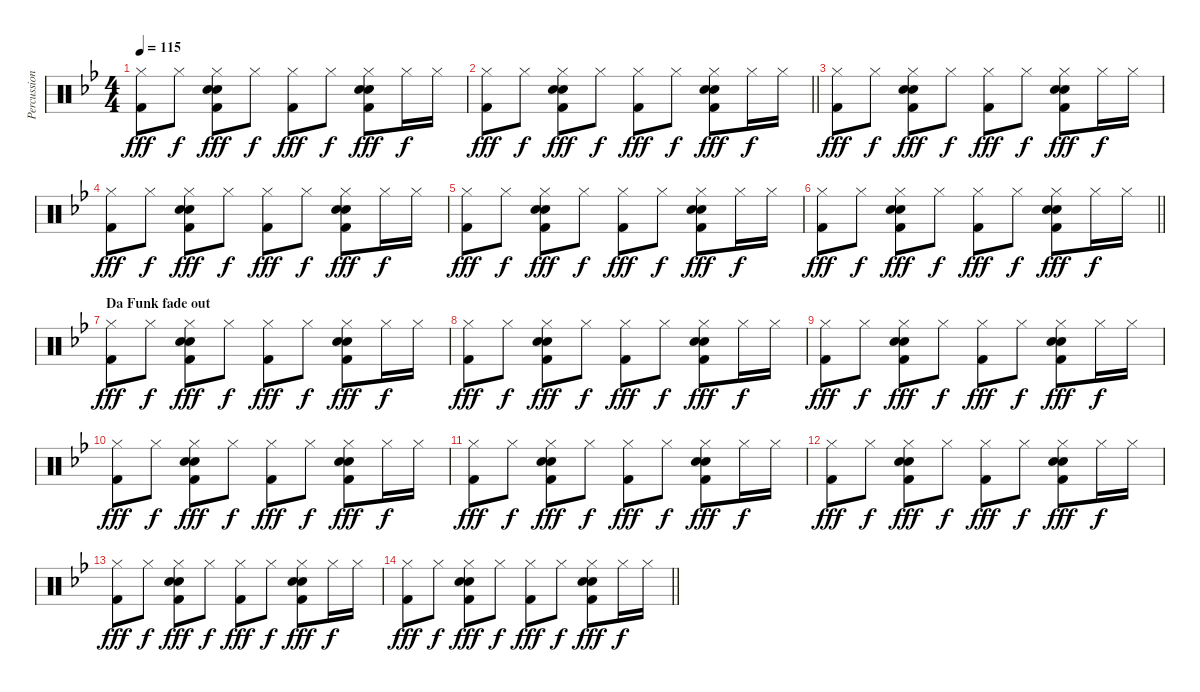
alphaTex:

\track ("Percussions" "Percussion") {instrument percussion}
\staff {score}
\articulation defaults
\ts (4 4)
\tempo 115
\clef neutral
\ks gminor
("Hi-Hat (closed)" "Kick (hit) 2").8{dy fff} "Hi-Hat (closed)".8{dy f} ("Hi-Hat (closed)" "Hand Clap (hit)" "Electric Snare (hit)" "Kick (hit) 2").8{dy fff} "Hi-Hat (closed)".8{dy f} ("Hi-Hat (closed)" "Kick (hit) 2").8{dy fff} "Hi-Hat (closed)".8{dy f} ("Hi-Hat (closed)" "Hand Clap (hit)" "Electric Snare (hit)" "Kick (hit) 2").8{dy fff} "Hi-Hat (closed)".16{dy f} "Hi-Hat (closed)".16 |
\barLineRight lightlight
("Hi-Hat (closed)" "Kick (hit) 2").8{dy fff} "Hi-Hat (closed)".8{dy f} ("Hi-Hat (closed)" "Hand Clap (hit)" "Electric Snare (hit)" "Kick (hit) 2").8{dy fff} "Hi-Hat (closed)".8{dy f} ("Hi-Hat (closed)" "Kick (hit) 2").8{dy fff} "Hi-Hat (closed)".8{dy f} ("Hi-Hat (closed)" "Hand Clap (hit)" "Electric Snare (hit)" "Kick (hit) 2").8{dy fff} "Hi-Hat (closed)".16{dy f} "Hi-Hat (closed)".16 |
\section ("" "")
("Hi-Hat (closed)" "Kick (hit) 2").8{dy fff} "Hi-Hat (closed)".8{dy f} ("Hi-Hat (closed)" "Hand Clap (hit)" "Electric Snare (hit)" "Kick (hit) 2").8{dy fff} "Hi-Hat (closed)".8{dy f} ("Hi-Hat (closed)" "Kick (hit) 2").8{dy fff} "Hi-Hat (closed)".8{dy f} ("Hi-Hat (closed)" "Hand Clap (hit)" "Electric Snare (hit)" "Kick (hit) 2").8{dy fff} "Hi-Hat (closed)".16{dy f} "Hi-Hat (closed)".16 |
("Hi-Hat (closed)" "Kick (hit) 2").8{dy fff} "Hi-Hat (closed)".8{dy f} ("Hi-Hat (closed)" "Hand Clap (hit)" "Electric Snare (hit)" "Kick (hit) 2").8{dy fff} "Hi-Hat (closed)".8{dy f} ("Hi-Hat (closed)" "Kick (hit) 2").8{dy fff} "Hi-Hat (closed)".8{dy f} ("Hi-Hat (closed)" "Hand Clap (hit)" "Electric Snare (hit)" "Kick (hit) 2").8{dy fff} "Hi-Hat (closed)".16{dy f} "Hi-Hat (closed)".16 |
("Hi-Hat (closed)" "Kick (hit) 2").8{dy fff} "Hi-Hat (closed)".8{dy f} ("Hi-Hat (closed)" "Hand Clap (hit)" "Electric Snare (hit)" "Kick (hit) 2").8{dy fff} "Hi-Hat (closed)".8{dy f} ("Hi-Hat (closed)" "Kick (hit) 2").8{dy fff} "Hi-Hat (closed)".8{dy f} ("Hi-Hat (closed)" "Hand Clap (hit)" "Electric Snare (hit)" "Kick (hit) 2").8{dy fff} "Hi-Hat (closed)".16{dy f} "Hi-Hat (closed)".16 |
\barLineRight lightlight
("Hi-Hat (closed)" "Kick (hit) 2").8{dy fff} "Hi-Hat (closed)".8{dy f} ("Hi-Hat (closed)" "Hand Clap (hit)" "Electric Snare (hit)" "Kick (hit) 2").8{dy fff} "Hi-Hat (closed)".8{dy f} ("Hi-Hat (closed)" "Kick (hit) 2").8{dy fff} "Hi-Hat (closed)".8{dy f} ("Hi-Hat (closed)" "Hand Clap (hit)" "Electric Snare (hit)" "Kick (hit) 2").8{dy fff} "Hi-Hat (closed)".16{dy f} "Hi-Hat (closed)".16 |
\section ("" "Da Funk fade out")
("Hi-Hat (closed)" "Kick (hit) 2").8{dy fff} "Hi-Hat (closed)".8{dy f} ("Hi-Hat (closed)" "Hand Clap (hit)" "Electric Snare (hit)" "Kick (hit) 2").8{dy fff} "Hi-Hat (closed)".8{dy f} ("Hi-Hat (closed)" "Kick (hit) 2").8{dy fff} "Hi-Hat (closed)".8{dy f} ("Hi-Hat (closed)" "Hand Clap (hit)" "Electric Snare (hit)" "Kick (hit) 2").8{dy fff} "Hi-Hat (closed)".16{dy f} "Hi-Hat (closed)".16 |
("Hi-Hat (closed)" "Kick (hit) 2").8{dy fff} "Hi-Hat (closed)".8{dy f} ("Hi-Hat (closed)" "Hand Clap (hit)" "Electric Snare (hit)" "Kick (hit) 2").8{dy fff} "Hi-Hat (closed)".8{dy f} ("Hi-Hat (closed)" "Kick (hit) 2").8{dy fff} "Hi-Hat (closed)".8{dy f} ("Hi-Hat (closed)" "Hand Clap (hit)" "Electric Snare (hit)" "Kick (hit) 2").8{dy fff} "Hi-Hat (closed)".16{dy f} "Hi-Hat (closed)".16 |
("Hi-Hat (closed)" "Kick (hit) 2").8{dy fff} "Hi-Hat (closed)".8{dy f} ("Hi-Hat (closed)" "Hand Clap (hit)" "Electric Snare (hit)" "Kick (hit) 2").8{dy fff} "Hi-Hat (closed)".8{dy f} ("Hi-Hat (closed)" "Kick (hit) 2").8{dy fff} "Hi-Hat (closed)".8{dy f} ("Hi-Hat (closed)" "Hand Clap (hit)" "Electric Snare (hit)" "Kick (hit) 2").8{dy fff} "Hi-Hat (closed)".16{dy f} "Hi-Hat (closed)".16 |
("Hi-Hat (closed)" "Kick (hit) 2").8{dy fff} "Hi-Hat (closed)".8{dy f} ("Hi-Hat (closed)" "Hand Clap (hit)" "Electric Snare (hit)" "Kick (hit) 2").8{dy fff} "Hi-Hat (closed)".8{dy f} ("Hi-Hat (closed)" "Kick (hit) 2").8{dy fff} "Hi-Hat (closed)".8{dy f} ("Hi-Hat (closed)" "Hand Clap (hit)" "Electric Snare (hit)" "Kick (hit) 2").8{dy fff} "Hi-Hat (closed)".16{dy f} "Hi-Hat (closed)".16 |
("Hi-Hat (closed)" "Kick (hit) 2").8{dy fff} "Hi-Hat (closed)".8{dy f} ("Hi-Hat (closed)" "Hand Clap (hit)" "Electric Snare (hit)" "Kick (hit) 2").8{dy fff} "Hi-Hat (closed)".8{dy f} ("Hi-Hat (closed)" "Kick (hit) 2").8{dy fff} "Hi-Hat (closed)".8{dy f} ("Hi-Hat (closed)" "Hand Clap (hit)" "Electric Snare (hit)" "Kick (hit) 2").8{dy fff} "Hi-Hat (closed)".16{dy f} "Hi-Hat (closed)".16 |
("Hi-Hat (closed)" "Kick (hit) 2").8{dy fff} "Hi-Hat (closed)".8{dy f} ("Hi-Hat (closed)" "Hand Clap (hit)" "Electric Snare (hit)" "Kick (hit) 2").8{dy fff} "Hi-Hat (closed)".8{dy f} ("Hi-Hat (closed)" "Kick (hit) 2").8{dy fff} "Hi-Hat (closed)".8{dy f} ("Hi-Hat (closed)" "Hand Clap (hit)" "Electric Snare (hit)" "Kick (hit) 2").8{dy fff} "Hi-Hat (closed)".16{dy f} "Hi-Hat (closed)".16 |
("Hi-Hat (closed)" "Kick (hit) 2").8{dy fff} "Hi-Hat (closed)".8{dy f} ("Hi-Hat (closed)" "Hand Clap (hit)" "Electric Snare (hit)" "Kick (hit) 2").8{dy fff} "Hi-Hat (closed)".8{dy f} ("Hi-Hat (closed)" "Kick (hit) 2").8{dy fff} "Hi-Hat (closed)".8{dy f} ("Hi-Hat (closed)" "Hand Clap (hit)" "Electric Snare (hit)" "Kick (hit) 2").8{dy fff} "Hi-Hat (closed)".16{dy f} "Hi-Hat (closed)".16 |
\barLineRight lightlight
("Hi-Hat (closed)" "Kick (hit) 2").8{dy fff} "Hi-Hat (closed)".8{dy f} ("Hi-Hat (closed)" "Hand Clap (hit)" "Electric Snare (hit)" "Kick (hit) 2").8{dy fff} "Hi-Hat (closed)".8{dy f} ("Hi-Hat (closed)" "Kick (hit) 2").8{dy fff} "Hi-Hat (closed)".8{dy f} ("Hi-Hat (closed)" "Hand Clap (hit)" "Electric Snare (hit)" "Kick (hit) 2").8{dy fff} "Hi-Hat (closed)".16{dy f} "Hi-Hat (closed)".16
